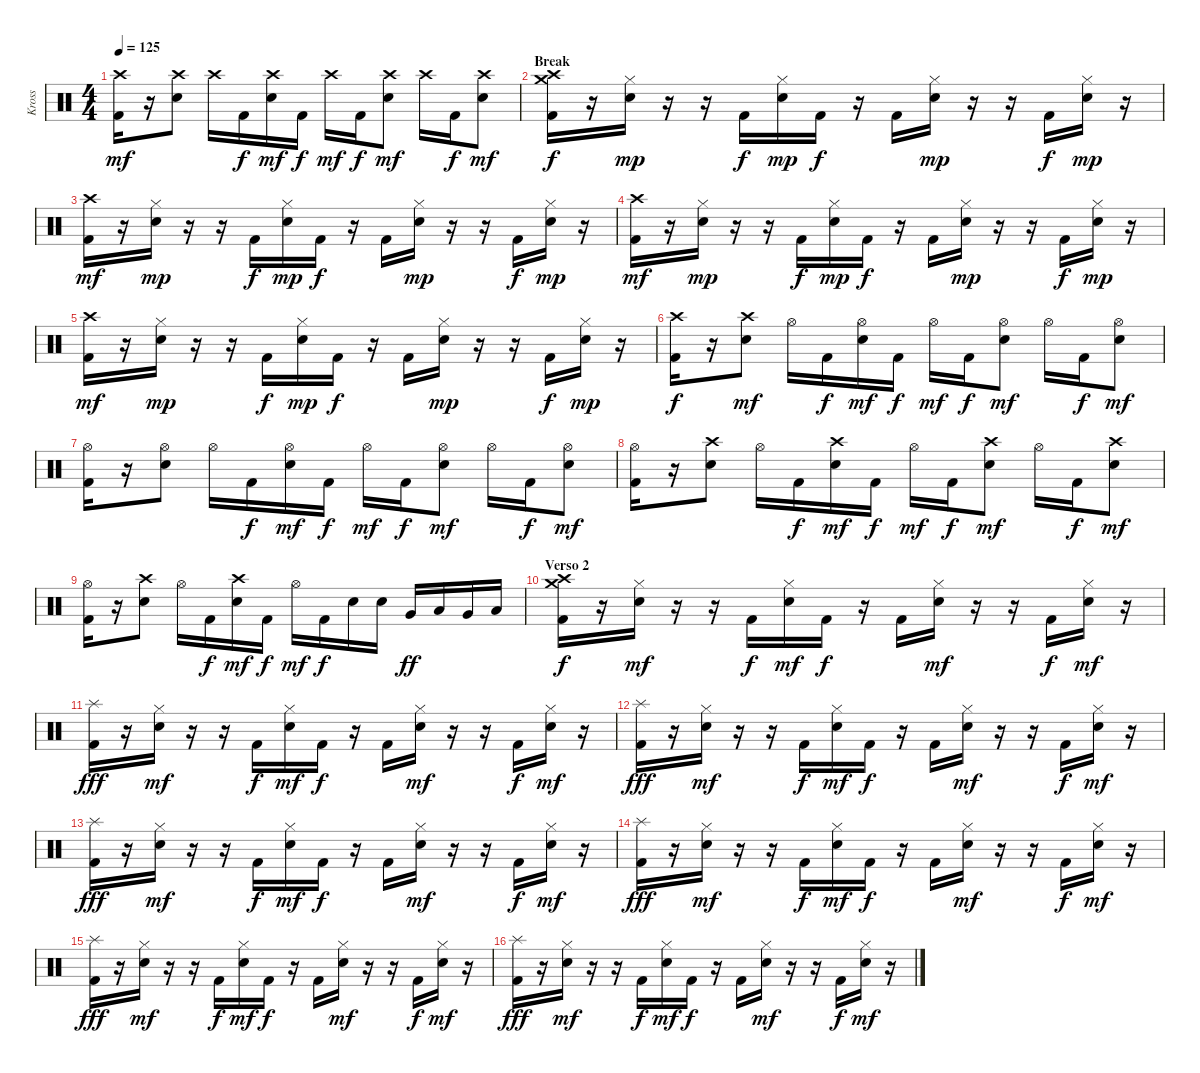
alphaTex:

\track ("Kross" "Kross") {instrument percussion}
\staff {score}
\articulation defaults
\ts (4 4)
\tempo 125
\clef neutral
\ks c
("Crash high (hit)" "Kick (hit) 2").16{dy mf} r.16 ("Crash high (hit)" "Electric Snare (hit)").8 "Crash high (hit)".16 "Kick (hit) 2".16{dy f} ("Crash high (hit)" "Electric Snare (hit)").16{dy mf} "Kick (hit) 2".16{dy f} "Crash high (hit)".16{dy mf} "Kick (hit) 2".16{dy f} ("Crash high (hit)" "Electric Snare (hit)").8{dy mf} "Crash high (hit)".16 "Kick (hit) 2".16{dy f} ("Crash high (hit)" "Electric Snare (hit)").8{dy mf} |
\section ("" "Break")
("Crash high (hit)" "Crash medium (hit)" "Kick (hit) 2").16{dy f} r.16 ("Hi-Hat (closed)" "Electric Snare (hit)").16{dy mp} r.16 r.16 "Kick (hit) 2".16{dy f} ("Hi-Hat (closed)" "Electric Snare (hit)").16{dy mp} "Kick (hit) 2".16{dy f} r.16 "Kick (hit) 2".16 ("Hi-Hat (closed)" "Electric Snare (hit)").16{dy mp} r.16 r.16 "Kick (hit) 2".16{dy f} ("Hi-Hat (closed)" "Electric Snare (hit)").16{dy mp} r.16 |
("Crash high (hit)" "Kick (hit) 2").16{dy mf} r.16 ("Hi-Hat (closed)" "Electric Snare (hit)").16{dy mp} r.16 r.16 "Kick (hit) 2".16{dy f} ("Hi-Hat (closed)" "Electric Snare (hit)").16{dy mp} "Kick (hit) 2".16{dy f} r.16 "Kick (hit) 2".16 ("Hi-Hat (closed)" "Electric Snare (hit)").16{dy mp} r.16 r.16 "Kick (hit) 2".16{dy f} ("Hi-Hat (closed)" "Electric Snare (hit)").16{dy mp} r.16 |
("Crash high (hit)" "Kick (hit) 2").16{dy mf} r.16 ("Hi-Hat (closed)" "Electric Snare (hit)").16{dy mp} r.16 r.16 "Kick (hit) 2".16{dy f} ("Hi-Hat (closed)" "Electric Snare (hit)").16{dy mp} "Kick (hit) 2".16{dy f} r.16 "Kick (hit) 2".16 ("Hi-Hat (closed)" "Electric Snare (hit)").16{dy mp} r.16 r.16 "Kick (hit) 2".16{dy f} ("Hi-Hat (closed)" "Electric Snare (hit)").16{dy mp} r.16 |
("Crash high (hit)" "Kick (hit) 2").16{dy mf} r.16 ("Hi-Hat (closed)" "Electric Snare (hit)").16{dy mp} r.16 r.16 "Kick (hit) 2".16{dy f} ("Hi-Hat (closed)" "Electric Snare (hit)").16{dy mp} "Kick (hit) 2".16{dy f} r.16 "Kick (hit) 2".16 ("Hi-Hat (closed)" "Electric Snare (hit)").16{dy mp} r.16 r.16 "Kick (hit) 2".16{dy f} ("Hi-Hat (closed)" "Electric Snare (hit)").16{dy mp} r.16 |
("Crash high (hit)" "Kick (hit) 2").16{dy f} r.16 ("Crash high (hit)" "Electric Snare (hit)").8{dy mf} "Hi-Hat (open)".16 "Kick (hit) 2".16{dy f} ("Hi-Hat (open)" "Electric Snare (hit)").16{dy mf} "Kick (hit) 2".16{dy f} "Hi-Hat (open)".16{dy mf} "Kick (hit) 2".16{dy f} ("Hi-Hat (open)" "Electric Snare (hit)").8{dy mf} "Hi-Hat (open)".16 "Kick (hit) 2".16{dy f} ("Hi-Hat (open)" "Electric Snare (hit)").8{dy mf} |
("Hi-Hat (open)" "Kick (hit) 2").16 r.16 ("Hi-Hat (open)" "Electric Snare (hit)").8 "Hi-Hat (open)".16 "Kick (hit) 2".16{dy f} ("Hi-Hat (open)" "Electric Snare (hit)").16{dy mf} "Kick (hit) 2".16{dy f} "Hi-Hat (open)".16{dy mf} "Kick (hit) 2".16{dy f} ("Hi-Hat (open)" "Electric Snare (hit)").8{dy mf} "Hi-Hat (open)".16 "Kick (hit) 2".16{dy f} ("Hi-Hat (open)" "Electric Snare (hit)").8{dy mf} |
("Hi-Hat (open)" "Kick (hit) 2").16 r.16 ("Crash high (hit)" "Electric Snare (hit)").8 "Hi-Hat (open)".16 "Kick (hit) 2".16{dy f} ("Crash high (hit)" "Electric Snare (hit)").16{dy mf} "Kick (hit) 2".16{dy f} "Hi-Hat (open)".16{dy mf} "Kick (hit) 2".16{dy f} ("Crash high (hit)" "Electric Snare (hit)").8{dy mf} "Hi-Hat (open)".16 "Kick (hit) 2".16{dy f} ("Crash high (hit)" "Electric Snare (hit)").8{dy mf} |
("Hi-Hat (open)" "Kick (hit) 2").16 r.16 ("Crash high (hit)" "Electric Snare (hit)").8 "Hi-Hat (open)".16 "Kick (hit) 2".16{dy f} ("Crash high (hit)" "Electric Snare (hit)").16{dy mf} "Kick (hit) 2".16{dy f} "Hi-Hat (open)".16{dy mf} "Kick (hit) 2".16{dy f} "Electric Snare (hit)".16 "Electric Snare (hit)".16 "Very Low Tom (hit)".16{dy ff} "Low Tom (hit)".16 "Very Low Tom (hit)".16 "Low Tom (hit)".16 |
\section ("" "Verso 2")
("Crash high (hit)" "Crash medium (hit)" "Kick (hit) 2").16{dy f} r.16 ("Hi-Hat (closed)" "Electric Snare (hit)").16{dy mf} r.16 r.16 "Kick (hit) 2".16{dy f} ("Hi-Hat (closed)" "Electric Snare (hit)").16{dy mf} "Kick (hit) 2".16{dy f} r.16 "Kick (hit) 2".16 ("Hi-Hat (closed)" "Electric Snare (hit)").16{dy mf} r.16 r.16 "Kick (hit) 2".16{dy f} ("Hi-Hat (closed)" "Electric Snare (hit)").16{dy mf} r.16 |
("Splash (hit)" "Kick (hit) 2").16{dy fff} r.16 ("Hi-Hat (closed)" "Electric Snare (hit)").16{dy mf} r.16 r.16 "Kick (hit) 2".16{dy f} ("Hi-Hat (closed)" "Electric Snare (hit)").16{dy mf} "Kick (hit) 2".16{dy f} r.16 "Kick (hit) 2".16 ("Hi-Hat (closed)" "Electric Snare (hit)").16{dy mf} r.16 r.16 "Kick (hit) 2".16{dy f} ("Hi-Hat (closed)" "Electric Snare (hit)").16{dy mf} r.16 |
("Splash (hit)" "Kick (hit) 2").16{dy fff} r.16 ("Hi-Hat (closed)" "Electric Snare (hit)").16{dy mf} r.16 r.16 "Kick (hit) 2".16{dy f} ("Hi-Hat (closed)" "Electric Snare (hit)").16{dy mf} "Kick (hit) 2".16{dy f} r.16 "Kick (hit) 2".16 ("Hi-Hat (closed)" "Electric Snare (hit)").16{dy mf} r.16 r.16 "Kick (hit) 2".16{dy f} ("Hi-Hat (closed)" "Electric Snare (hit)").16{dy mf} r.16 |
("Splash (hit)" "Kick (hit) 2").16{dy fff} r.16 ("Hi-Hat (closed)" "Electric Snare (hit)").16{dy mf} r.16 r.16 "Kick (hit) 2".16{dy f} ("Hi-Hat (closed)" "Electric Snare (hit)").16{dy mf} "Kick (hit) 2".16{dy f} r.16 "Kick (hit) 2".16 ("Hi-Hat (closed)" "Electric Snare (hit)").16{dy mf} r.16 r.16 "Kick (hit) 2".16{dy f} ("Hi-Hat (closed)" "Electric Snare (hit)").16{dy mf} r.16 |
("Splash (hit)" "Kick (hit) 2").16{dy fff} r.16 ("Hi-Hat (closed)" "Electric Snare (hit)").16{dy mf} r.16 r.16 "Kick (hit) 2".16{dy f} ("Hi-Hat (closed)" "Electric Snare (hit)").16{dy mf} "Kick (hit) 2".16{dy f} r.16 "Kick (hit) 2".16 ("Hi-Hat (closed)" "Electric Snare (hit)").16{dy mf} r.16 r.16 "Kick (hit) 2".16{dy f} ("Hi-Hat (closed)" "Electric Snare (hit)").16{dy mf} r.16 |
("Splash (hit)" "Kick (hit) 2").16{dy fff} r.16 ("Hi-Hat (closed)" "Electric Snare (hit)").16{dy mf} r.16 r.16 "Kick (hit) 2".16{dy f} ("Hi-Hat (closed)" "Electric Snare (hit)").16{dy mf} "Kick (hit) 2".16{dy f} r.16 "Kick (hit) 2".16 ("Hi-Hat (closed)" "Electric Snare (hit)").16{dy mf} r.16 r.16 "Kick (hit) 2".16{dy f} ("Hi-Hat (closed)" "Electric Snare (hit)").16{dy mf} r.16 |
("Splash (hit)" "Kick (hit) 2").16{dy fff} r.16 ("Hi-Hat (closed)" "Electric Snare (hit)").16{dy mf} r.16 r.16 "Kick (hit) 2".16{dy f} ("Hi-Hat (closed)" "Electric Snare (hit)").16{dy mf} "Kick (hit) 2".16{dy f} r.16 "Kick (hit) 2".16 ("Hi-Hat (closed)" "Electric Snare (hit)").16{dy mf} r.16 r.16 "Kick (hit) 2".16{dy f} ("Hi-Hat (closed)" "Electric Snare (hit)").16{dy mf} r.16
